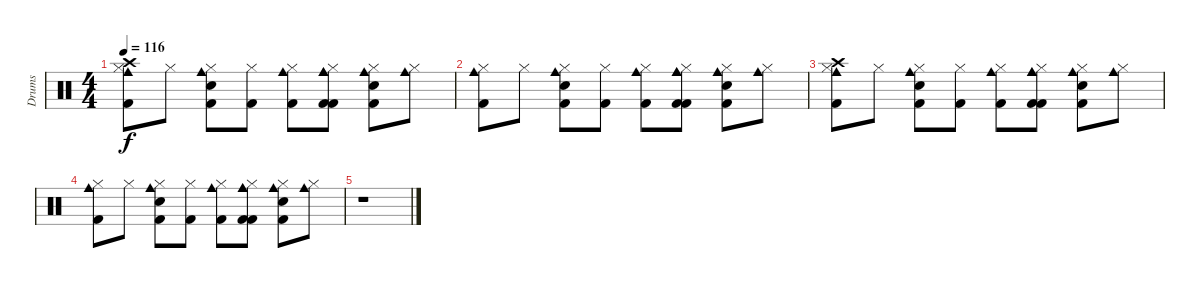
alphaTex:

\track ("Drums" "Drums") {instrument percussion}
\staff {score}
\articulation defaults
\ts (4 4)
\tempo 116
\clef neutral
\ks c
("Kick (hit) 2" "Hi-Hat (closed)" "Cowbell medium (hit)" "Crash high (hit)").8{dy f} "Hi-Hat (closed)".8 ("Snare (hit) 2" "Kick (hit) 2" "Hi-Hat (closed)" "Cowbell medium (hit)").8 ("Kick (hit) 2" "Hi-Hat (closed)").8 ("Hi-Hat (closed)" "Kick (hit) 2" "Cowbell medium (hit)").8 ("Kick (hit) 2" "Hi-Hat (closed)" "Cowbell medium (hit)" "Kick (hit) 2" "Cowbell medium (hit)").8 ("Kick (hit) 2" "Snare (hit) 2" "Hi-Hat (closed)" "Cowbell medium (hit)").8 ("Hi-Hat (closed)" "Cowbell medium (hit)").8 |
("Kick (hit) 2" "Hi-Hat (closed)" "Cowbell medium (hit)").8 "Hi-Hat (closed)".8 ("Snare (hit) 2" "Kick (hit) 2" "Hi-Hat (closed)" "Cowbell medium (hit)").8 ("Kick (hit) 2" "Hi-Hat (closed)").8 ("Hi-Hat (closed)" "Kick (hit) 2" "Cowbell medium (hit)").8 ("Kick (hit) 2" "Hi-Hat (closed)" "Cowbell medium (hit)" "Kick (hit) 2" "Cowbell medium (hit)").8 ("Kick (hit) 2" "Snare (hit) 2" "Hi-Hat (closed)" "Cowbell medium (hit)").8 ("Hi-Hat (closed)" "Cowbell medium (hit)").8 |
("Kick (hit) 2" "Hi-Hat (closed)" "Cowbell medium (hit)" "Crash high (hit)").8 "Hi-Hat (closed)".8 ("Snare (hit) 2" "Kick (hit) 2" "Hi-Hat (closed)" "Cowbell medium (hit)").8 ("Kick (hit) 2" "Hi-Hat (closed)").8 ("Hi-Hat (closed)" "Kick (hit) 2" "Cowbell medium (hit)").8 ("Kick (hit) 2" "Hi-Hat (closed)" "Cowbell medium (hit)" "Kick (hit) 2" "Cowbell medium (hit)").8 ("Kick (hit) 2" "Snare (hit) 2" "Hi-Hat (closed)" "Cowbell medium (hit)").8 ("Hi-Hat (closed)" "Cowbell medium (hit)").8 |
("Kick (hit) 2" "Hi-Hat (closed)" "Cowbell medium (hit)").8 "Hi-Hat (closed)".8 ("Snare (hit) 2" "Kick (hit) 2" "Hi-Hat (closed)" "Cowbell medium (hit)").8 ("Kick (hit) 2" "Hi-Hat (closed)").8 ("Hi-Hat (closed)" "Kick (hit) 2" "Cowbell medium (hit)").8 ("Kick (hit) 2" "Hi-Hat (closed)" "Cowbell medium (hit)" "Kick (hit) 2" "Cowbell medium (hit)").8 ("Kick (hit) 2" "Snare (hit) 2" "Hi-Hat (closed)" "Cowbell medium (hit)").8 ("Hi-Hat (closed)" "Cowbell medium (hit)").8 |
r.1
